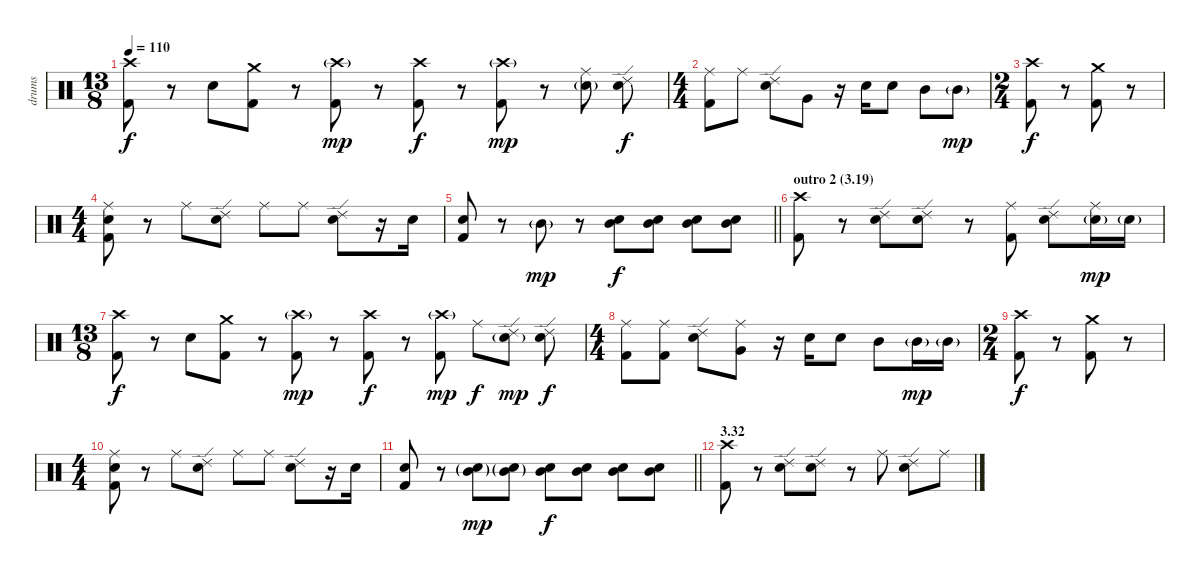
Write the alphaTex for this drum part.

\track ("drums" "drums") {instrument percussion}
\staff {score}
\articulation defaults
\ts (13 8)
\tempo 110
\clef neutral
\ks c
("Crash high (hit)" "Kick (hit) 2").8{dy f} r.8 "Electric Snare (hit)".8 ("Crash medium (hit)" "Kick (hit) 2").8 r.8 ("Crash high (hit)"{g} "Kick (hit) 2").8{dy mp} r.8 ("Crash high (hit)" "Kick (hit) 2").8{dy f} r.8 ("Crash high (hit)"{g} "Kick (hit) 2").8{dy mp} r.8 ("Ride (middle)" "Electric Snare (hit)"{g}).8 ("Ride (edge) 2" "Electric Snare (hit)").8{dy f} |
\ts (4 4)
("Ride (middle)" "Kick (hit) 2").8 "Ride (middle)".8 ("Ride (edge) 2" "Electric Snare (hit)").8 "Very Low Tom (hit)".8 r.16 "Electric Snare (hit)".16 "Electric Snare (hit)".8 "Mid Tom (hit)".8 "Mid Tom (hit)"{g}.8{dy mp} |
\ts (2 4)
("Crash high (hit)" "Kick (hit) 2").8{dy f} r.8 ("Crash medium (hit)" "Kick (hit) 2").8 r.8 |
\ts (4 4)
("Ride (middle)" "Electric Snare (hit)" "Kick (hit) 2").8 r.8 "Ride (middle)".8 ("Ride (edge) 2" "Electric Snare (hit)").8 "Ride (middle)".8 "Ride (middle)".8 ("Ride (edge) 2" "Electric Snare (hit)").8 r.16 "Electric Snare (hit)".16 |
\barLineRight lightlight
("Electric Snare (hit)" "Kick (hit) 2").8 r.8 "Mid Tom (hit)"{g}.8{dy mp} r.8 ("Mid Tom (hit)" "Electric Snare (hit)").8{dy f} ("Mid Tom (hit)" "Electric Snare (hit)").8 ("Mid Tom (hit)" "Electric Snare (hit)").8 ("Mid Tom (hit)" "Electric Snare (hit)").8 |
\section ("" "outro 2 (3.19)")
("Crash high (hit)" "Kick (hit) 2").8 r.8 ("Ride (edge) 2" "Electric Snare (hit)").8 ("Ride (edge) 2" "Electric Snare (hit)").8 r.8 ("Ride (middle)" "Kick (hit) 2").8 ("Ride (edge) 2" "Electric Snare (hit)").8 ("Ride (middle)" "Electric Snare (hit)"{g}).16{dy mp} "Electric Snare (hit)"{g}.16 |
\ts (13 8)
("Crash high (hit)" "Kick (hit) 2").8{dy f} r.8 "Electric Snare (hit)".8 ("Crash medium (hit)" "Kick (hit) 2").8 r.8 ("Crash high (hit)"{g} "Kick (hit) 2").8{dy mp} r.8 ("Crash high (hit)" "Kick (hit) 2").8{dy f} r.8 ("Crash high (hit)"{g} "Kick (hit) 2").8{dy mp} "Ride (middle)".8{dy f} ("Ride (edge) 2" "Electric Snare (hit)"{g}).8{dy mp} ("Ride (edge) 2" "Electric Snare (hit)").8{dy f} |
\ts (4 4)
("Ride (middle)" "Kick (hit) 2").8 ("Ride (middle)" "Kick (hit) 2").8 ("Ride (edge) 2" "Electric Snare (hit)").8 ("Ride (middle)" "Very Low Tom (hit)").8 r.16 "Electric Snare (hit)".16 "Electric Snare (hit)".8 "Mid Tom (hit)".8 "Mid Tom (hit)"{g}.16{dy mp} "Mid Tom (hit)"{g}.16 |
\ts (2 4)
("Crash high (hit)" "Kick (hit) 2").8{dy f} r.8 ("Crash medium (hit)" "Kick (hit) 2").8 r.8 |
\ts (4 4)
("Ride (middle)" "Electric Snare (hit)" "Kick (hit) 2").8 r.8 "Ride (middle)".8 ("Ride (edge) 2" "Electric Snare (hit)").8 "Ride (middle)".8 "Ride (middle)".8 ("Ride (edge) 2" "Electric Snare (hit)").8 r.16 "Electric Snare (hit)".16 |
\barLineRight lightlight
("Electric Snare (hit)" "Kick (hit) 2").8 r.8 ("Mid Tom (hit)"{g} "Electric Snare (hit)"{g}).8{dy mp} ("Mid Tom (hit)"{g} "Electric Snare (hit)"{g}).8 ("Mid Tom (hit)" "Electric Snare (hit)").8{dy f} ("Mid Tom (hit)" "Electric Snare (hit)").8 ("Mid Tom (hit)" "Electric Snare (hit)").8 ("Mid Tom (hit)" "Electric Snare (hit)").8 |
\section ("" "3.32")
("Crash high (hit)" "Kick (hit) 2").8 r.8 ("Ride (edge) 2" "Electric Snare (hit)").8 ("Ride (edge) 2" "Electric Snare (hit)").8 r.8 "Ride (middle)".8 ("Ride (edge) 2" "Electric Snare (hit)").8 "Ride (middle)".8
